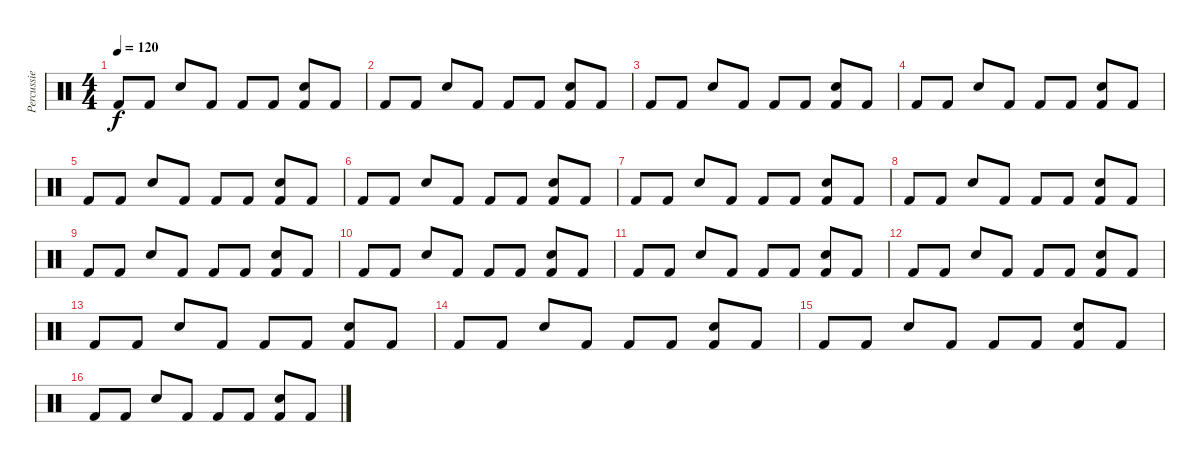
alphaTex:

\track ("Percussie" "Percussie") {instrument percussion}
\staff {score}
\articulation defaults
\ts (4 4)
\tempo 120
\clef neutral
\ks c "Kick (hit) 2".8{dy f} "Kick (hit) 2".8 "Snare (hit) 2".8 "Kick (hit) 2".8 "Kick (hit) 2".8 "Kick (hit) 2".8
("Snare (hit) 2" "Kick (hit) 2").8 "Kick (hit) 2".8 |
"Kick (hit) 2".8 "Kick (hit) 2".8 "Snare (hit) 2".8 "Kick (hit) 2".8 "Kick (hit) 2".8 "Kick (hit) 2".8 ("Snare (hit) 2" "Kick (hit) 2").8 "Kick (hit) 2".8 |
"Kick (hit) 2".8 "Kick (hit) 2".8 "Snare (hit) 2".8 "Kick (hit) 2".8 "Kick (hit) 2".8 "Kick (hit) 2".8 ("Snare (hit) 2" "Kick (hit) 2").8 "Kick (hit) 2".8 |
"Kick (hit) 2".8 "Kick (hit) 2".8 "Snare (hit) 2".8 "Kick (hit) 2".8 "Kick (hit) 2".8 "Kick (hit) 2".8 ("Snare (hit) 2" "Kick (hit) 2").8 "Kick (hit) 2".8 |
"Kick (hit) 2".8 "Kick (hit) 2".8 "Snare (hit) 2".8 "Kick (hit) 2".8 "Kick (hit) 2".8 "Kick (hit) 2".8 ("Snare (hit) 2" "Kick (hit) 2").8 "Kick (hit) 2".8 |
"Kick (hit) 2".8 "Kick (hit) 2".8 "Snare (hit) 2".8 "Kick (hit) 2".8 "Kick (hit) 2".8 "Kick (hit) 2".8 ("Snare (hit) 2" "Kick (hit) 2").8 "Kick (hit) 2".8 |
"Kick (hit) 2".8 "Kick (hit) 2".8 "Snare (hit) 2".8 "Kick (hit) 2".8 "Kick (hit) 2".8 "Kick (hit) 2".8 ("Snare (hit) 2" "Kick (hit) 2").8 "Kick (hit) 2".8 |
"Kick (hit) 2".8 "Kick (hit) 2".8 "Snare (hit) 2".8 "Kick (hit) 2".8 "Kick (hit) 2".8 "Kick (hit) 2".8 ("Snare (hit) 2" "Kick (hit) 2").8 "Kick (hit) 2".8 |
"Kick (hit) 2".8 "Kick (hit) 2".8 "Snare (hit) 2".8 "Kick (hit) 2".8 "Kick (hit) 2".8 "Kick (hit) 2".8 ("Snare (hit) 2" "Kick (hit) 2").8 "Kick (hit) 2".8 |
"Kick (hit) 2".8 "Kick (hit) 2".8 "Snare (hit) 2".8 "Kick (hit) 2".8 "Kick (hit) 2".8 "Kick (hit) 2".8 ("Snare (hit) 2" "Kick (hit) 2").8 "Kick (hit) 2".8 |
"Kick (hit) 2".8 "Kick (hit) 2".8 "Snare (hit) 2".8 "Kick (hit) 2".8 "Kick (hit) 2".8 "Kick (hit) 2".8 ("Snare (hit) 2" "Kick (hit) 2").8 "Kick (hit) 2".8 |
"Kick (hit) 2".8 "Kick (hit) 2".8 "Snare (hit) 2".8 "Kick (hit) 2".8 "Kick (hit) 2".8 "Kick (hit) 2".8 ("Snare (hit) 2" "Kick (hit) 2").8 "Kick (hit) 2".8 |
"Kick (hit) 2".8 "Kick (hit) 2".8 "Snare (hit) 2".8 "Kick (hit) 2".8 "Kick (hit) 2".8 "Kick (hit) 2".8 ("Snare (hit) 2" "Kick (hit) 2").8 "Kick (hit) 2".8 |
"Kick (hit) 2".8 "Kick (hit) 2".8 "Snare (hit) 2".8 "Kick (hit) 2".8 "Kick (hit) 2".8 "Kick (hit) 2".8 ("Snare (hit) 2" "Kick (hit) 2").8 "Kick (hit) 2".8 |
"Kick (hit) 2".8 "Kick (hit) 2".8 "Snare (hit) 2".8 "Kick (hit) 2".8 "Kick (hit) 2".8 "Kick (hit) 2".8 ("Snare (hit) 2" "Kick (hit) 2").8 "Kick (hit) 2".8 |
"Kick (hit) 2".8 "Kick (hit) 2".8 "Snare (hit) 2".8 "Kick (hit) 2".8 "Kick (hit) 2".8 "Kick (hit) 2".8 ("Snare (hit) 2" "Kick (hit) 2").8 "Kick (hit) 2".8
